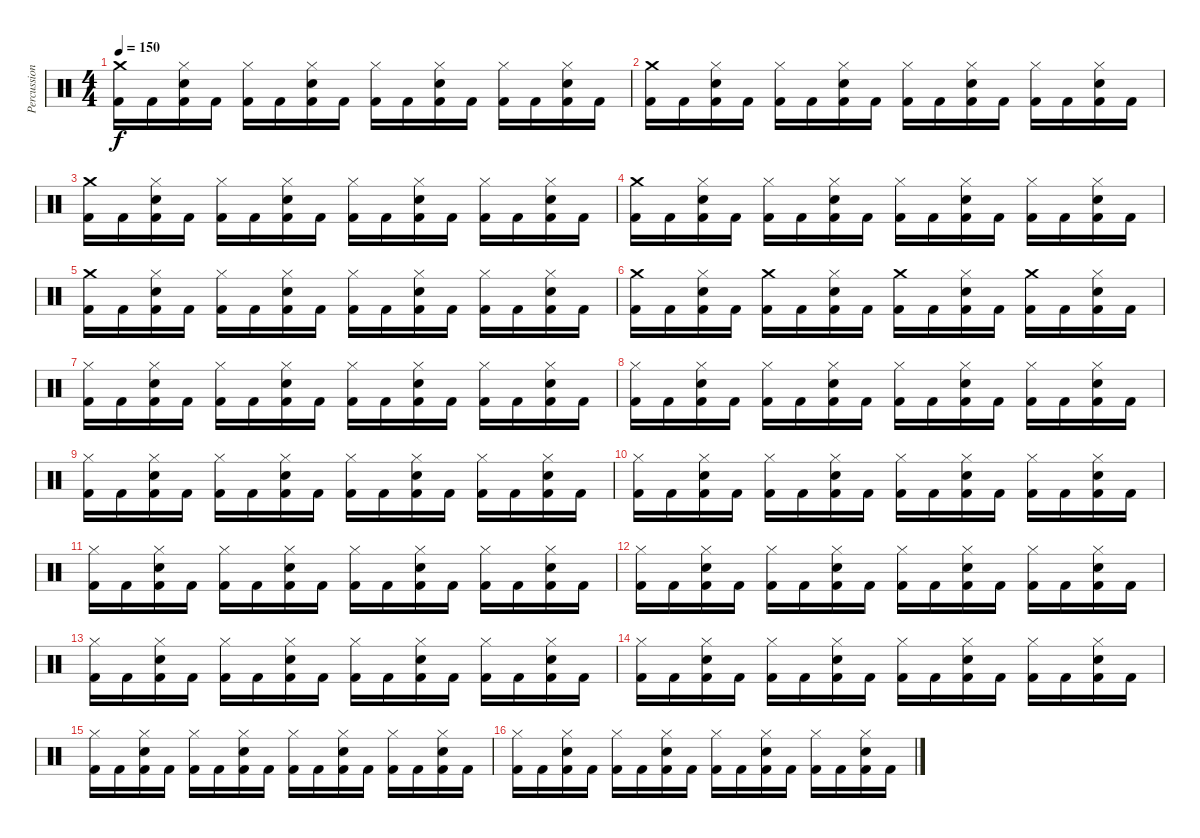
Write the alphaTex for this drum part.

\track ("Percussioni" "Percussion") {instrument percussion}
\staff {score}
\articulation defaults
\ts (4 4)
\tempo 150
\clef neutral
\ks c
("Crash medium (hit)" "Kick (hit) 2").16{dy f} "Kick (hit) 2".16 ("Hi-Hat (closed)" "Electric Snare (hit)" "Kick (hit) 2").16 "Kick (hit) 2".16 ("Hi-Hat (closed)" "Kick (hit) 2").16 "Kick (hit) 2".16 ("Hi-Hat (closed)" "Electric Snare (hit)" "Kick (hit) 2").16 "Kick (hit) 2".16 ("Hi-Hat (closed)" "Kick (hit) 2").16 "Kick (hit) 2".16 ("Hi-Hat (closed)" "Electric Snare (hit)" "Kick (hit) 2").16 "Kick (hit) 2".16 ("Hi-Hat (closed)" "Kick (hit) 2").16 "Kick (hit) 2".16 ("Hi-Hat (closed)" "Electric Snare (hit)" "Kick (hit) 2").16 "Kick (hit) 2".16 |
("Crash medium (hit)" "Kick (hit) 2").16 "Kick (hit) 2".16 ("Hi-Hat (closed)" "Electric Snare (hit)" "Kick (hit) 2").16 "Kick (hit) 2".16 ("Hi-Hat (closed)" "Kick (hit) 2").16 "Kick (hit) 2".16 ("Hi-Hat (closed)" "Electric Snare (hit)" "Kick (hit) 2").16 "Kick (hit) 2".16 ("Hi-Hat (closed)" "Kick (hit) 2").16 "Kick (hit) 2".16 ("Hi-Hat (closed)" "Electric Snare (hit)" "Kick (hit) 2").16 "Kick (hit) 2".16 ("Hi-Hat (closed)" "Kick (hit) 2").16 "Kick (hit) 2".16 ("Hi-Hat (closed)" "Electric Snare (hit)" "Kick (hit) 2").16 "Kick (hit) 2".16 |
("Crash medium (hit)" "Kick (hit) 2").16 "Kick (hit) 2".16 ("Hi-Hat (closed)" "Electric Snare (hit)" "Kick (hit) 2").16 "Kick (hit) 2".16 ("Hi-Hat (closed)" "Kick (hit) 2").16 "Kick (hit) 2".16 ("Hi-Hat (closed)" "Electric Snare (hit)" "Kick (hit) 2").16 "Kick (hit) 2".16 ("Hi-Hat (closed)" "Kick (hit) 2").16 "Kick (hit) 2".16 ("Hi-Hat (closed)" "Electric Snare (hit)" "Kick (hit) 2").16 "Kick (hit) 2".16 ("Hi-Hat (closed)" "Kick (hit) 2").16 "Kick (hit) 2".16 ("Hi-Hat (closed)" "Electric Snare (hit)" "Kick (hit) 2").16 "Kick (hit) 2".16 |
("Crash medium (hit)" "Kick (hit) 2").16 "Kick (hit) 2".16 ("Hi-Hat (closed)" "Electric Snare (hit)" "Kick (hit) 2").16 "Kick (hit) 2".16 ("Hi-Hat (closed)" "Kick (hit) 2").16 "Kick (hit) 2".16 ("Hi-Hat (closed)" "Electric Snare (hit)" "Kick (hit) 2").16 "Kick (hit) 2".16 ("Hi-Hat (closed)" "Kick (hit) 2").16 "Kick (hit) 2".16 ("Hi-Hat (closed)" "Electric Snare (hit)" "Kick (hit) 2").16 "Kick (hit) 2".16 ("Hi-Hat (closed)" "Kick (hit) 2").16 "Kick (hit) 2".16 ("Hi-Hat (closed)" "Electric Snare (hit)" "Kick (hit) 2").16 "Kick (hit) 2".16 |
("Crash medium (hit)" "Kick (hit) 2").16 "Kick (hit) 2".16 ("Hi-Hat (closed)" "Electric Snare (hit)" "Kick (hit) 2").16 "Kick (hit) 2".16 ("Hi-Hat (closed)" "Kick (hit) 2").16 "Kick (hit) 2".16 ("Hi-Hat (closed)" "Electric Snare (hit)" "Kick (hit) 2").16 "Kick (hit) 2".16 ("Hi-Hat (closed)" "Kick (hit) 2").16 "Kick (hit) 2".16 ("Hi-Hat (closed)" "Electric Snare (hit)" "Kick (hit) 2").16 "Kick (hit) 2".16 ("Hi-Hat (closed)" "Kick (hit) 2").16 "Kick (hit) 2".16 ("Hi-Hat (closed)" "Electric Snare (hit)" "Kick (hit) 2").16 "Kick (hit) 2".16 |
("Crash medium (hit)" "Kick (hit) 2").16 "Kick (hit) 2".16 ("Hi-Hat (closed)" "Electric Snare (hit)" "Kick (hit) 2").16 "Kick (hit) 2".16 ("Crash medium (hit)" "Kick (hit) 2").16 "Kick (hit) 2".16 ("Hi-Hat (closed)" "Electric Snare (hit)" "Kick (hit) 2").16 "Kick (hit) 2".16 ("Crash medium (hit)" "Kick (hit) 2").16 "Kick (hit) 2".16 ("Hi-Hat (closed)" "Electric Snare (hit)" "Kick (hit) 2").16 "Kick (hit) 2".16 ("Crash medium (hit)" "Kick (hit) 2").16 "Kick (hit) 2".16 ("Hi-Hat (closed)" "Electric Snare (hit)" "Kick (hit) 2").16 "Kick (hit) 2".16 |
("Hi-Hat (closed)" "Kick (hit) 2").16 "Kick (hit) 2".16 ("Hi-Hat (closed)" "Electric Snare (hit)" "Kick (hit) 2").16 "Kick (hit) 2".16 ("Hi-Hat (closed)" "Kick (hit) 2").16 "Kick (hit) 2".16 ("Hi-Hat (closed)" "Electric Snare (hit)" "Kick (hit) 2").16 "Kick (hit) 2".16 ("Hi-Hat (closed)" "Kick (hit) 2").16 "Kick (hit) 2".16 ("Hi-Hat (closed)" "Electric Snare (hit)" "Kick (hit) 2").16 "Kick (hit) 2".16 ("Hi-Hat (closed)" "Kick (hit) 2").16 "Kick (hit) 2".16 ("Hi-Hat (closed)" "Electric Snare (hit)" "Kick (hit) 2").16 "Kick (hit) 2".16 |
("Hi-Hat (closed)" "Kick (hit) 2").16 "Kick (hit) 2".16 ("Hi-Hat (closed)" "Electric Snare (hit)" "Kick (hit) 2").16 "Kick (hit) 2".16 ("Hi-Hat (closed)" "Kick (hit) 2").16 "Kick (hit) 2".16 ("Hi-Hat (closed)" "Electric Snare (hit)" "Kick (hit) 2").16 "Kick (hit) 2".16 ("Hi-Hat (closed)" "Kick (hit) 2").16 "Kick (hit) 2".16 ("Hi-Hat (closed)" "Electric Snare (hit)" "Kick (hit) 2").16 "Kick (hit) 2".16 ("Hi-Hat (closed)" "Kick (hit) 2").16 "Kick (hit) 2".16 ("Hi-Hat (closed)" "Electric Snare (hit)" "Kick (hit) 2").16 "Kick (hit) 2".16 |
("Hi-Hat (closed)" "Kick (hit) 2").16 "Kick (hit) 2".16 ("Hi-Hat (closed)" "Electric Snare (hit)" "Kick (hit) 2").16 "Kick (hit) 2".16 ("Hi-Hat (closed)" "Kick (hit) 2").16 "Kick (hit) 2".16 ("Hi-Hat (closed)" "Electric Snare (hit)" "Kick (hit) 2").16 "Kick (hit) 2".16 ("Hi-Hat (closed)" "Kick (hit) 2").16 "Kick (hit) 2".16 ("Hi-Hat (closed)" "Electric Snare (hit)" "Kick (hit) 2").16 "Kick (hit) 2".16 ("Hi-Hat (closed)" "Kick (hit) 2").16 "Kick (hit) 2".16 ("Hi-Hat (closed)" "Electric Snare (hit)" "Kick (hit) 2").16 "Kick (hit) 2".16 |
("Hi-Hat (closed)" "Kick (hit) 2").16 "Kick (hit) 2".16 ("Hi-Hat (closed)" "Electric Snare (hit)" "Kick (hit) 2").16 "Kick (hit) 2".16 ("Hi-Hat (closed)" "Kick (hit) 2").16 "Kick (hit) 2".16 ("Hi-Hat (closed)" "Electric Snare (hit)" "Kick (hit) 2").16 "Kick (hit) 2".16 ("Hi-Hat (closed)" "Kick (hit) 2").16 "Kick (hit) 2".16 ("Hi-Hat (closed)" "Electric Snare (hit)" "Kick (hit) 2").16 "Kick (hit) 2".16 ("Hi-Hat (closed)" "Kick (hit) 2").16 "Kick (hit) 2".16 ("Hi-Hat (closed)" "Electric Snare (hit)" "Kick (hit) 2").16 "Kick (hit) 2".16 |
("Hi-Hat (closed)" "Kick (hit) 2").16 "Kick (hit) 2".16 ("Hi-Hat (closed)" "Electric Snare (hit)" "Kick (hit) 2").16 "Kick (hit) 2".16 ("Hi-Hat (closed)" "Kick (hit) 2").16 "Kick (hit) 2".16 ("Hi-Hat (closed)" "Electric Snare (hit)" "Kick (hit) 2").16 "Kick (hit) 2".16 ("Hi-Hat (closed)" "Kick (hit) 2").16 "Kick (hit) 2".16 ("Hi-Hat (closed)" "Electric Snare (hit)" "Kick (hit) 2").16 "Kick (hit) 2".16 ("Hi-Hat (closed)" "Kick (hit) 2").16 "Kick (hit) 2".16 ("Hi-Hat (closed)" "Electric Snare (hit)" "Kick (hit) 2").16 "Kick (hit) 2".16 |
("Hi-Hat (closed)" "Kick (hit) 2").16 "Kick (hit) 2".16 ("Hi-Hat (closed)" "Electric Snare (hit)" "Kick (hit) 2").16 "Kick (hit) 2".16 ("Hi-Hat (closed)" "Kick (hit) 2").16 "Kick (hit) 2".16 ("Hi-Hat (closed)" "Electric Snare (hit)" "Kick (hit) 2").16 "Kick (hit) 2".16 ("Hi-Hat (closed)" "Kick (hit) 2").16 "Kick (hit) 2".16 ("Hi-Hat (closed)" "Electric Snare (hit)" "Kick (hit) 2").16 "Kick (hit) 2".16 ("Hi-Hat (closed)" "Kick (hit) 2").16 "Kick (hit) 2".16 ("Hi-Hat (closed)" "Electric Snare (hit)" "Kick (hit) 2").16 "Kick (hit) 2".16 |
("Hi-Hat (closed)" "Kick (hit) 2").16 "Kick (hit) 2".16 ("Hi-Hat (closed)" "Electric Snare (hit)" "Kick (hit) 2").16 "Kick (hit) 2".16 ("Hi-Hat (closed)" "Kick (hit) 2").16 "Kick (hit) 2".16 ("Hi-Hat (closed)" "Electric Snare (hit)" "Kick (hit) 2").16 "Kick (hit) 2".16 ("Hi-Hat (closed)" "Kick (hit) 2").16 "Kick (hit) 2".16 ("Hi-Hat (closed)" "Electric Snare (hit)" "Kick (hit) 2").16 "Kick (hit) 2".16 ("Hi-Hat (closed)" "Kick (hit) 2").16 "Kick (hit) 2".16 ("Hi-Hat (closed)" "Electric Snare (hit)" "Kick (hit) 2").16 "Kick (hit) 2".16 |
("Hi-Hat (closed)" "Kick (hit) 2").16 "Kick (hit) 2".16 ("Hi-Hat (closed)" "Electric Snare (hit)" "Kick (hit) 2").16 "Kick (hit) 2".16 ("Hi-Hat (closed)" "Kick (hit) 2").16 "Kick (hit) 2".16 ("Hi-Hat (closed)" "Electric Snare (hit)" "Kick (hit) 2").16 "Kick (hit) 2".16 ("Hi-Hat (closed)" "Kick (hit) 2").16 "Kick (hit) 2".16 ("Hi-Hat (closed)" "Electric Snare (hit)" "Kick (hit) 2").16 "Kick (hit) 2".16 ("Hi-Hat (closed)" "Kick (hit) 2").16 "Kick (hit) 2".16 ("Hi-Hat (closed)" "Electric Snare (hit)" "Kick (hit) 2").16 "Kick (hit) 2".16 |
("Hi-Hat (closed)" "Kick (hit) 2").16 "Kick (hit) 2".16 ("Hi-Hat (closed)" "Electric Snare (hit)" "Kick (hit) 2").16 "Kick (hit) 2".16 ("Hi-Hat (closed)" "Kick (hit) 2").16 "Kick (hit) 2".16 ("Hi-Hat (closed)" "Electric Snare (hit)" "Kick (hit) 2").16 "Kick (hit) 2".16 ("Hi-Hat (closed)" "Kick (hit) 2").16 "Kick (hit) 2".16 ("Hi-Hat (closed)" "Electric Snare (hit)" "Kick (hit) 2").16 "Kick (hit) 2".16 ("Hi-Hat (closed)" "Kick (hit) 2").16 "Kick (hit) 2".16 ("Hi-Hat (closed)" "Electric Snare (hit)" "Kick (hit) 2").16 "Kick (hit) 2".16 |
("Hi-Hat (closed)" "Kick (hit) 2").16 "Kick (hit) 2".16 ("Hi-Hat (closed)" "Electric Snare (hit)" "Kick (hit) 2").16 "Kick (hit) 2".16 ("Hi-Hat (closed)" "Kick (hit) 2").16 "Kick (hit) 2".16 ("Hi-Hat (closed)" "Electric Snare (hit)" "Kick (hit) 2").16 "Kick (hit) 2".16 ("Hi-Hat (closed)" "Kick (hit) 2").16 "Kick (hit) 2".16 ("Hi-Hat (closed)" "Electric Snare (hit)" "Kick (hit) 2").16 "Kick (hit) 2".16 ("Hi-Hat (closed)" "Kick (hit) 2").16 "Kick (hit) 2".16 ("Hi-Hat (closed)" "Electric Snare (hit)" "Kick (hit) 2").16 "Kick (hit) 2".16
